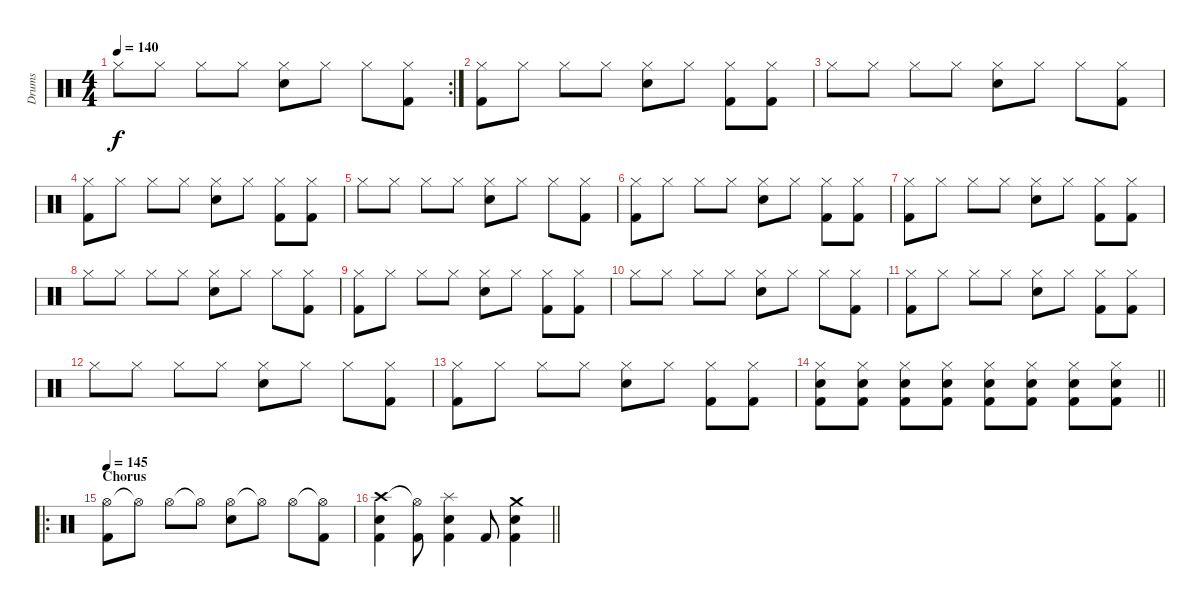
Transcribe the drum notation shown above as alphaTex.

\track ("Drums" "Drums") {instrument percussion}
\staff {score}
\articulation defaults
\rc 2
\ts (4 4)
\tempo 140
\clef neutral
\ks c "Hi-Hat (closed)".8{dy f} "Hi-Hat (closed)".8 "Hi-Hat (closed)".8 "Hi-Hat (closed)".8
("Hi-Hat (closed)" "Snare (hit) 2").8 "Hi-Hat (closed)".8 "Hi-Hat (closed)".8 ("Hi-Hat (closed)" "Kick (hit) 2").8 |
("Hi-Hat (closed)" "Kick (hit) 2").8 "Hi-Hat (closed)".8 "Hi-Hat (closed)".8 "Hi-Hat (closed)".8 ("Hi-Hat (closed)" "Snare (hit) 2").8 "Hi-Hat (closed)".8 ("Hi-Hat (closed)" "Kick (hit) 2").8 ("Hi-Hat (closed)" "Kick (hit) 2").8 |
"Hi-Hat (closed)".8 "Hi-Hat (closed)".8 "Hi-Hat (closed)".8 "Hi-Hat (closed)".8 ("Hi-Hat (closed)" "Snare (hit) 2").8 "Hi-Hat (closed)".8 "Hi-Hat (closed)".8 ("Hi-Hat (closed)" "Kick (hit) 2").8 |
("Hi-Hat (closed)" "Kick (hit) 2").8 "Hi-Hat (closed)".8 "Hi-Hat (closed)".8 "Hi-Hat (closed)".8 ("Hi-Hat (closed)" "Snare (hit) 2").8 "Hi-Hat (closed)".8 ("Hi-Hat (closed)" "Kick (hit) 2").8 ("Hi-Hat (closed)" "Kick (hit) 2").8 |
"Hi-Hat (closed)".8 "Hi-Hat (closed)".8 "Hi-Hat (closed)".8 "Hi-Hat (closed)".8 ("Hi-Hat (closed)" "Snare (hit) 2").8 "Hi-Hat (closed)".8 "Hi-Hat (closed)".8 ("Hi-Hat (closed)" "Kick (hit) 2").8 |
("Hi-Hat (closed)" "Kick (hit) 2").8 "Hi-Hat (closed)".8 "Hi-Hat (closed)".8 "Hi-Hat (closed)".8 ("Hi-Hat (closed)" "Snare (hit) 2").8 "Hi-Hat (closed)".8 ("Hi-Hat (closed)" "Kick (hit) 2").8 ("Hi-Hat (closed)" "Kick (hit) 2").8 |
("Hi-Hat (closed)" "Kick (hit) 2").8 "Hi-Hat (closed)".8 "Hi-Hat (closed)".8 "Hi-Hat (closed)".8 ("Hi-Hat (closed)" "Snare (hit) 2").8 "Hi-Hat (closed)".8 ("Hi-Hat (closed)" "Kick (hit) 2").8 ("Hi-Hat (closed)" "Kick (hit) 2").8 |
"Hi-Hat (closed)".8 "Hi-Hat (closed)".8 "Hi-Hat (closed)".8 "Hi-Hat (closed)".8 ("Hi-Hat (closed)" "Snare (hit) 2").8 "Hi-Hat (closed)".8 "Hi-Hat (closed)".8 ("Hi-Hat (closed)" "Kick (hit) 2").8 |
("Hi-Hat (closed)" "Kick (hit) 2").8 "Hi-Hat (closed)".8 "Hi-Hat (closed)".8 "Hi-Hat (closed)".8 ("Hi-Hat (closed)" "Snare (hit) 2").8 "Hi-Hat (closed)".8 ("Hi-Hat (closed)" "Kick (hit) 2").8 ("Hi-Hat (closed)" "Kick (hit) 2").8 |
"Hi-Hat (closed)".8 "Hi-Hat (closed)".8 "Hi-Hat (closed)".8 "Hi-Hat (closed)".8 ("Hi-Hat (closed)" "Snare (hit) 2").8 "Hi-Hat (closed)".8 "Hi-Hat (closed)".8 ("Hi-Hat (closed)" "Kick (hit) 2").8 |
("Hi-Hat (closed)" "Kick (hit) 2").8 "Hi-Hat (closed)".8 "Hi-Hat (closed)".8 "Hi-Hat (closed)".8 ("Hi-Hat (closed)" "Snare (hit) 2").8 "Hi-Hat (closed)".8 ("Hi-Hat (closed)" "Kick (hit) 2").8 ("Hi-Hat (closed)" "Kick (hit) 2").8 |
"Hi-Hat (closed)".8 "Hi-Hat (closed)".8 "Hi-Hat (closed)".8 "Hi-Hat (closed)".8 ("Hi-Hat (closed)" "Snare (hit) 2").8 "Hi-Hat (closed)".8 "Hi-Hat (closed)".8 ("Hi-Hat (closed)" "Kick (hit) 2").8 |
("Hi-Hat (closed)" "Kick (hit) 2").8 "Hi-Hat (closed)".8 "Hi-Hat (closed)".8 "Hi-Hat (closed)".8 ("Hi-Hat (closed)" "Snare (hit) 2").8 "Hi-Hat (closed)".8 ("Hi-Hat (closed)" "Kick (hit) 2").8 ("Hi-Hat (closed)" "Kick (hit) 2").8 |
\barLineRight lightlight
("Hi-Hat (closed)" "Kick (hit) 2" "Snare (hit) 2").8 ("Hi-Hat (closed)" "Kick (hit) 2" "Snare (hit) 2").8 ("Hi-Hat (closed)" "Kick (hit) 2" "Snare (hit) 2").8 ("Hi-Hat (closed)" "Kick (hit) 2" "Snare (hit) 2").8 ("Hi-Hat (closed)" "Kick (hit) 2" "Snare (hit) 2").8 ("Hi-Hat (closed)" "Kick (hit) 2" "Snare (hit) 2").8 ("Hi-Hat (closed)" "Kick (hit) 2" "Snare (hit) 2").8 ("Hi-Hat (closed)" "Kick (hit) 2" "Snare (hit) 2").8 |
\ro
\section ("" "Chorus")
\tempo 145
("Hi-Hat (open)" "Kick (hit) 2").8 "Hi-Hat (open)"{t}.8 "Hi-Hat (open)".8 "Hi-Hat (open)"{t}.8 ("Hi-Hat (open)" "Snare (hit) 2").8 "Hi-Hat (open)"{t}.8 "Hi-Hat (open)".8 ("Hi-Hat (open)"{t} "Kick (hit) 2").8 |
\barLineRight lightlight
("Crash high (hit)" "Snare (hit) 2" "Kick (hit) 2").4 ("Hi-Hat (open)"{t} "Kick (hit) 2").8 ("Splash (hit)" "Snare (hit) 2" "Kick (hit) 2").4 "Kick (hit) 2".8 ("Crash medium (hit)" "Snare (hit) 2" "Kick (hit) 2").4
